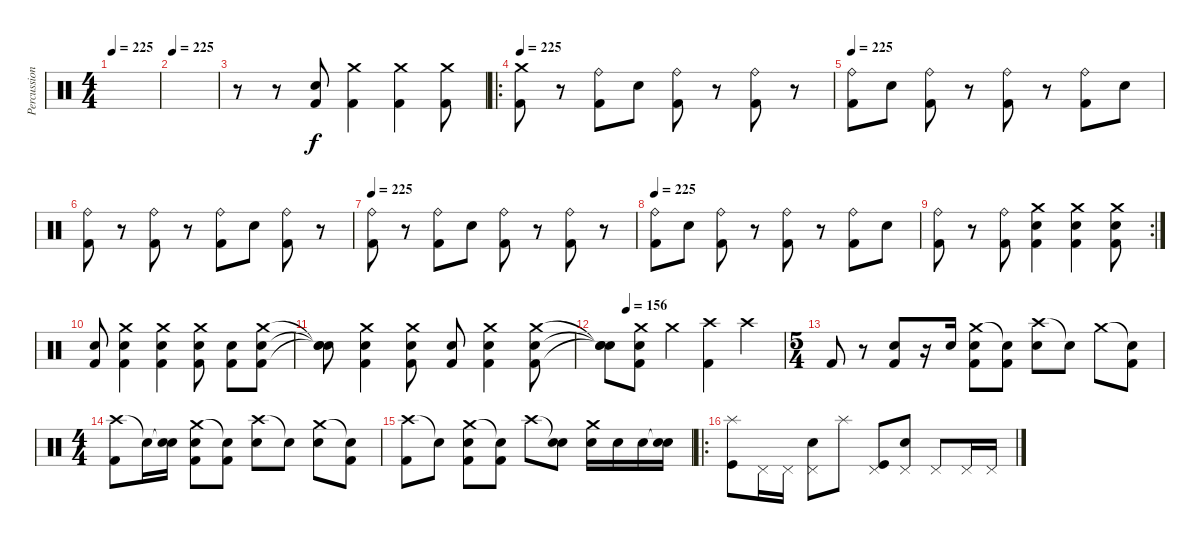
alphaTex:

\track ("Percussion" "Percussion") {instrument percussion}
\staff {score}
\articulation defaults
\ts (4 4)
\tempo 225
\clef neutral
\ks c
|
\tempo 225
|
r.8 r.8 ("Electric Snare (hit)" "Kick (hit) 2").8 ("Crash medium (hit)" "Kick (hit) 2").4 ("Crash medium (hit)" "Kick (hit) 2").4 ("Crash medium (hit)" "Kick (hit) 2").8 |
\ro
\tempo 225
("Crash medium (hit)" "Kick (hit) 2").8 r.8 ("Ride (bell)" "Kick (hit) 2").8 "Electric Snare (hit)".8 ("Ride (bell)" "Kick (hit) 2").8 r.8 ("Ride (bell)" "Kick (hit) 2").8 r.8 |
\tempo 225
("Ride (bell)" "Kick (hit) 2").8 "Electric Snare (hit)".8 ("Ride (bell)" "Kick (hit) 2").8 r.8 ("Ride (bell)" "Kick (hit) 2").8 r.8 ("Ride (bell)" "Kick (hit) 2").8 "Electric Snare (hit)".8 |
("Ride (bell)" "Kick (hit) 2").8 r.8 ("Ride (bell)" "Kick (hit) 2").8 r.8 ("Ride (bell)" "Kick (hit) 2").8 "Electric Snare (hit)".8 ("Ride (bell)" "Kick (hit) 2").8 r.8 |
\tempo 225
("Ride (bell)" "Kick (hit) 2").8 r.8 ("Ride (bell)" "Kick (hit) 2").8 "Electric Snare (hit)".8 ("Ride (bell)" "Kick (hit) 2").8 r.8 ("Ride (bell)" "Kick (hit) 2").8 r.8 |
\tempo 225
("Ride (bell)" "Kick (hit) 2").8 "Electric Snare (hit)".8 ("Ride (bell)" "Kick (hit) 2").8 r.8 ("Ride (bell)" "Kick (hit) 2").8 r.8 ("Ride (bell)" "Kick (hit) 2").8 "Electric Snare (hit)".8 |
\rc 2
("Ride (bell)" "Kick (hit) 2").8 r.8 ("Ride (bell)" "Kick (hit) 2").8 ("Crash medium (hit)" "Electric Snare (hit)" "Kick (hit) 2").4 ("Crash medium (hit)" "Electric Snare (hit)" "Kick (hit) 2").4 ("Crash medium (hit)" "Electric Snare (hit)" "Kick (hit) 2").8 |
("Electric Snare (hit)" "Kick (hit) 2").8 ("Crash medium (hit)" "Electric Snare (hit)" "Kick (hit) 2").4 ("Crash medium (hit)" "Electric Snare (hit)" "Kick (hit) 2").4 ("Crash medium (hit)" "Electric Snare (hit)" "Kick (hit) 2").8 ("Electric Snare (hit)" "Kick (hit) 2").8 ("Crash medium (hit)" "Electric Snare (hit)" "Kick (hit) 2").8 |
("Snare (hit)"{t} "Snare (hit)"{t} "Snare (hit)"{t}).8 ("Crash medium (hit)" "Electric Snare (hit)" "Kick (hit) 2").4 ("Crash medium (hit)" "Electric Snare (hit)" "Kick (hit) 2").8 ("Electric Snare (hit)" "Kick (hit) 2").8 ("Crash medium (hit)" "Electric Snare (hit)" "Kick (hit) 2").4 ("Crash medium (hit)" "Electric Snare (hit)" "Kick (hit) 2").8 |
\tempo (156 0.125)
("Snare (hit)"{t} "Snare (hit)"{t} "Snare (hit)"{t}).8 ("Crash medium (hit)" "Electric Snare (hit)" "Kick (hit) 2").8 "Crash medium (hit)".4 ("Crash high (hit)" "Kick (hit) 2").4 "Crash high (hit)".4 |
\ts (5 4)
"Kick (hit) 2".8 r.8 ("Electric Snare (hit)" "Kick (hit) 2").8 r.16 "Electric Snare (hit)".16 ("Crash medium (hit)" "Electric Snare (hit)" "Kick (hit) 2").8 ("Snare (hit)"{t} "Kick (hit) 2").8 ("Crash high (hit)" "Electric Snare (hit)").8 "Snare (hit)"{t}.8 "Crash medium (hit)".8 ("Snare (hit)"{t} "Kick (hit) 2").8 |
\ts (4 4)
("Crash high (hit)" "Kick (hit) 2").8 "Snare (hit)"{t}.16 ("Snare (hit)"{t} "Electric Snare (hit)").16 ("Crash medium (hit)" "Electric Snare (hit)" "Kick (hit) 2").8 ("Snare (hit)"{t} "Kick (hit) 2").8 ("Crash high (hit)" "Electric Snare (hit)").8 "Snare (hit)"{t}.8 ("Crash medium (hit)" "Electric Snare (hit)").8 ("Snare (hit)"{t} "Kick (hit) 2").8 |
("Crash high (hit)" "Kick (hit) 2").8 "Snare (hit)"{t}.8 ("Crash medium (hit)" "Electric Snare (hit)" "Kick (hit) 2").8 ("Snare (hit)"{t} "Kick (hit) 2").8 "Crash high (hit)".8 ("Snare (hit)"{t} "Electric Snare (hit)").8 ("Crash medium (hit)" "Electric Snare (hit)").16 "Electric Snare (hit)".16 "Electric Snare (hit)".16 ("Snare (hit)"{t} "Electric Snare (hit)").16 |
\ro
("Splash (hit)" "Kick (hit)").8 "Pedal Hi-Hat (hit)".16 "Pedal Hi-Hat (hit)".16 ("Pedal Hi-Hat (hit)" "Electric Snare (hit)").8 "Splash (hit)".8 ("Pedal Hi-Hat (hit)" "Kick (hit)").8 ("Pedal Hi-Hat (hit)" "Electric Snare (hit)").8 "Pedal Hi-Hat (hit)".8 "Pedal Hi-Hat (hit)".16 "Pedal Hi-Hat (hit)".16
